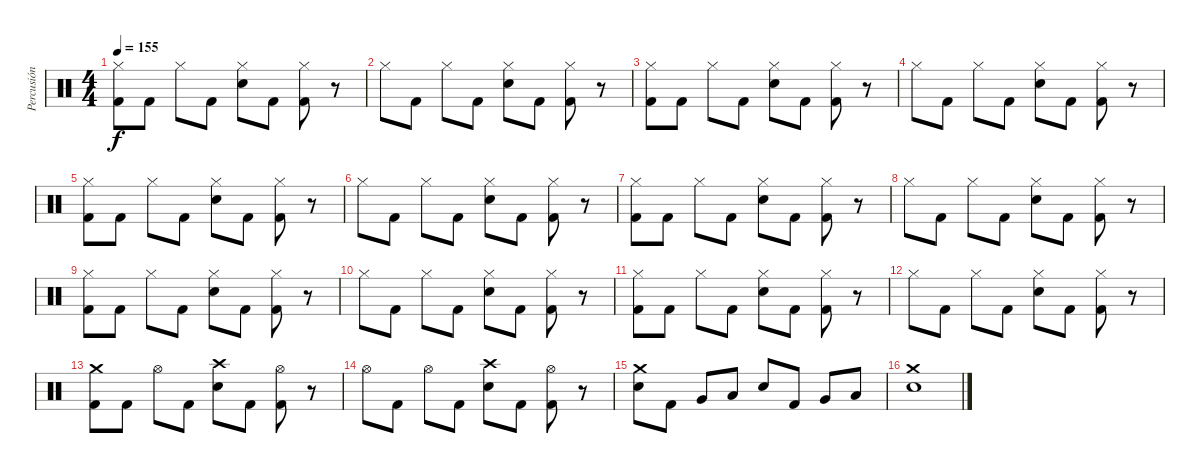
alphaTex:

\track ("Percusión" "Percusión") {instrument percussion}
\staff {score}
\articulation defaults
\ts (4 4)
\tempo 155
\clef neutral
\ks c
("Hi-Hat (closed)" "Kick (hit) 2").8{dy f} "Kick (hit) 2".8 "Hi-Hat (closed)".8 "Kick (hit) 2".8 ("Hi-Hat (closed)" "Electric Snare (hit)").8 "Kick (hit) 2".8 ("Hi-Hat (closed)" "Kick (hit) 2").8 r.8 |
"Hi-Hat (closed)".8 "Kick (hit) 2".8 "Hi-Hat (closed)".8 "Kick (hit) 2".8 ("Hi-Hat (closed)" "Electric Snare (hit)").8 "Kick (hit) 2".8 ("Hi-Hat (closed)" "Kick (hit) 2").8 r.8 |
("Hi-Hat (closed)" "Kick (hit) 2").8 "Kick (hit) 2".8 "Hi-Hat (closed)".8 "Kick (hit) 2".8 ("Hi-Hat (closed)" "Electric Snare (hit)").8 "Kick (hit) 2".8 ("Hi-Hat (closed)" "Kick (hit) 2").8 r.8 |
"Hi-Hat (closed)".8 "Kick (hit) 2".8 "Hi-Hat (closed)".8 "Kick (hit) 2".8 ("Hi-Hat (closed)" "Electric Snare (hit)").8 "Kick (hit) 2".8 ("Hi-Hat (closed)" "Kick (hit) 2").8 r.8 |
("Hi-Hat (closed)" "Kick (hit) 2").8 "Kick (hit) 2".8 "Hi-Hat (closed)".8 "Kick (hit) 2".8 ("Hi-Hat (closed)" "Electric Snare (hit)").8 "Kick (hit) 2".8 ("Hi-Hat (closed)" "Kick (hit) 2").8 r.8 |
"Hi-Hat (closed)".8 "Kick (hit) 2".8 "Hi-Hat (closed)".8 "Kick (hit) 2".8 ("Hi-Hat (closed)" "Electric Snare (hit)").8 "Kick (hit) 2".8 ("Hi-Hat (closed)" "Kick (hit) 2").8 r.8 |
("Hi-Hat (closed)" "Kick (hit) 2").8 "Kick (hit) 2".8 "Hi-Hat (closed)".8 "Kick (hit) 2".8 ("Hi-Hat (closed)" "Electric Snare (hit)").8 "Kick (hit) 2".8 ("Hi-Hat (closed)" "Kick (hit) 2").8 r.8 |
"Hi-Hat (closed)".8 "Kick (hit) 2".8 "Hi-Hat (closed)".8 "Kick (hit) 2".8 ("Hi-Hat (closed)" "Electric Snare (hit)").8 "Kick (hit) 2".8 ("Hi-Hat (closed)" "Kick (hit) 2").8 r.8 |
("Hi-Hat (closed)" "Kick (hit) 2").8 "Kick (hit) 2".8 "Hi-Hat (closed)".8 "Kick (hit) 2".8 ("Hi-Hat (closed)" "Electric Snare (hit)").8 "Kick (hit) 2".8 ("Hi-Hat (closed)" "Kick (hit) 2").8 r.8 |
"Hi-Hat (closed)".8 "Kick (hit) 2".8 "Hi-Hat (closed)".8 "Kick (hit) 2".8 ("Hi-Hat (closed)" "Electric Snare (hit)").8 "Kick (hit) 2".8 ("Hi-Hat (closed)" "Kick (hit) 2").8 r.8 |
("Hi-Hat (closed)" "Kick (hit) 2").8 "Kick (hit) 2".8 "Hi-Hat (closed)".8 "Kick (hit) 2".8 ("Hi-Hat (closed)" "Electric Snare (hit)").8 "Kick (hit) 2".8 ("Hi-Hat (closed)" "Kick (hit) 2").8 r.8 |
"Hi-Hat (closed)".8 "Kick (hit) 2".8 "Hi-Hat (closed)".8 "Kick (hit) 2".8 ("Hi-Hat (closed)" "Electric Snare (hit)").8 "Kick (hit) 2".8 ("Hi-Hat (closed)" "Kick (hit) 2").8 r.8 |
("Crash medium (hit)" "Kick (hit) 2").8 "Kick (hit) 2".8 "Hi-Hat (open)".8 "Kick (hit) 2".8 ("Crash high (hit)" "Electric Snare (hit)").8 "Kick (hit) 2".8 ("Hi-Hat (open)" "Kick (hit) 2").8 r.8 |
"Hi-Hat (open)".8 "Kick (hit) 2".8 "Hi-Hat (open)".8 "Kick (hit) 2".8 ("Crash high (hit)" "Electric Snare (hit)").8 "Kick (hit) 2".8 ("Hi-Hat (open)" "Kick (hit) 2").8 r.8 |
("Crash medium (hit)" "Electric Snare (hit)").8 "Kick (hit) 2".8 "Very Low Tom (hit)".8 "Low Floor Tom (hit)".8 "Electric Snare (hit)".8 "Kick (hit) 2".8 "Very Low Tom (hit)".8 "Low Floor Tom (hit)".8 |
("Crash medium (hit)" "Electric Snare (hit)").1
